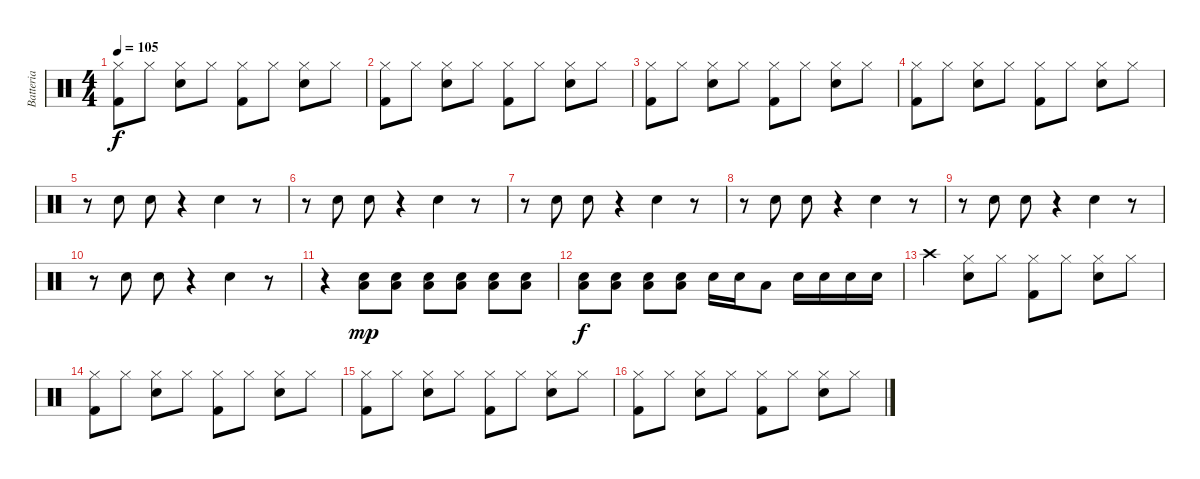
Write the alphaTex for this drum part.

\track ("Batteria" "Batteria") {instrument percussion}
\staff {score}
\articulation defaults
\ts (4 4)
\tempo 105
\clef neutral
\ks c
("Hi-Hat (closed)" "Kick (hit) 2").8{dy f} "Hi-Hat (closed)".8 ("Hi-Hat (closed)" "Snare (hit) 2").8 "Hi-Hat (closed)".8 ("Hi-Hat (closed)" "Kick (hit) 2").8 "Hi-Hat (closed)".8 ("Hi-Hat (closed)" "Snare (hit) 2").8 "Hi-Hat (closed)".8 |
("Hi-Hat (closed)" "Kick (hit) 2").8 "Hi-Hat (closed)".8 ("Hi-Hat (closed)" "Snare (hit) 2").8 "Hi-Hat (closed)".8 ("Hi-Hat (closed)" "Kick (hit) 2").8 "Hi-Hat (closed)".8 ("Hi-Hat (closed)" "Snare (hit) 2").8 "Hi-Hat (closed)".8 |
("Hi-Hat (closed)" "Kick (hit) 2").8 "Hi-Hat (closed)".8 ("Hi-Hat (closed)" "Snare (hit) 2").8 "Hi-Hat (closed)".8 ("Hi-Hat (closed)" "Kick (hit) 2").8 "Hi-Hat (closed)".8 ("Hi-Hat (closed)" "Snare (hit) 2").8 "Hi-Hat (closed)".8 |
("Hi-Hat (closed)" "Kick (hit) 2").8 "Hi-Hat (closed)".8 ("Hi-Hat (closed)" "Snare (hit) 2").8 "Hi-Hat (closed)".8 ("Hi-Hat (closed)" "Kick (hit) 2").8 "Hi-Hat (closed)".8 ("Hi-Hat (closed)" "Snare (hit) 2").8 "Hi-Hat (closed)".8 |
r.8 "Hand Clap (hit)".8 "Hand Clap (hit)".8 r.4 "Hand Clap (hit)".4 r.8 |
r.8 "Hand Clap (hit)".8 "Hand Clap (hit)".8 r.4 "Hand Clap (hit)".4 r.8 |
r.8 "Hand Clap (hit)".8 "Hand Clap (hit)".8 r.4 "Hand Clap (hit)".4 r.8 |
r.8 "Hand Clap (hit)".8 "Hand Clap (hit)".8 r.4 "Hand Clap (hit)".4 r.8 |
r.8 "Hand Clap (hit)".8 "Hand Clap (hit)".8 r.4 "Hand Clap (hit)".4 r.8 |
r.8 "Hand Clap (hit)".8 "Hand Clap (hit)".8 r.4 "Hand Clap (hit)".4 r.8 |
r.4 ("Snare (hit) 2" "Low Tom (hit)").8{dy mp} ("Snare (hit) 2" "Low Tom (hit)").8 ("Snare (hit) 2" "Low Tom (hit)").8 ("Snare (hit) 2" "Low Tom (hit)").8 ("Snare (hit) 2" "Low Tom (hit)").8 ("Snare (hit) 2" "Low Tom (hit)").8 |
("Snare (hit) 2" "Low Tom (hit)").8{dy f} ("Snare (hit) 2" "Low Tom (hit)").8 ("Snare (hit) 2" "Low Tom (hit)").8 ("Snare (hit) 2" "Low Tom (hit)").8 "Snare (hit) 2".16 "Snare (hit) 2".16 "Low Tom (hit)".8 "Snare (hit) 2".16 "Snare (hit) 2".16 "Snare (hit) 2".16 "Snare (hit) 2".16 |
"Crash high (hit)".4 ("Hi-Hat (closed)" "Snare (hit) 2").8 "Hi-Hat (closed)".8 ("Hi-Hat (closed)" "Kick (hit) 2").8 "Hi-Hat (closed)".8 ("Hi-Hat (closed)" "Snare (hit) 2").8 "Hi-Hat (closed)".8 |
("Hi-Hat (closed)" "Kick (hit) 2").8 "Hi-Hat (closed)".8 ("Hi-Hat (closed)" "Snare (hit) 2").8 "Hi-Hat (closed)".8 ("Hi-Hat (closed)" "Kick (hit) 2").8 "Hi-Hat (closed)".8 ("Hi-Hat (closed)" "Snare (hit) 2").8 "Hi-Hat (closed)".8 |
("Hi-Hat (closed)" "Kick (hit) 2").8 "Hi-Hat (closed)".8 ("Hi-Hat (closed)" "Snare (hit) 2").8 "Hi-Hat (closed)".8 ("Hi-Hat (closed)" "Kick (hit) 2").8 "Hi-Hat (closed)".8 ("Hi-Hat (closed)" "Snare (hit) 2").8 "Hi-Hat (closed)".8 |
("Hi-Hat (closed)" "Kick (hit) 2").8 "Hi-Hat (closed)".8 ("Hi-Hat (closed)" "Snare (hit) 2").8 "Hi-Hat (closed)".8 ("Hi-Hat (closed)" "Kick (hit) 2").8 "Hi-Hat (closed)".8 ("Hi-Hat (closed)" "Snare (hit) 2").8 "Hi-Hat (closed)".8
